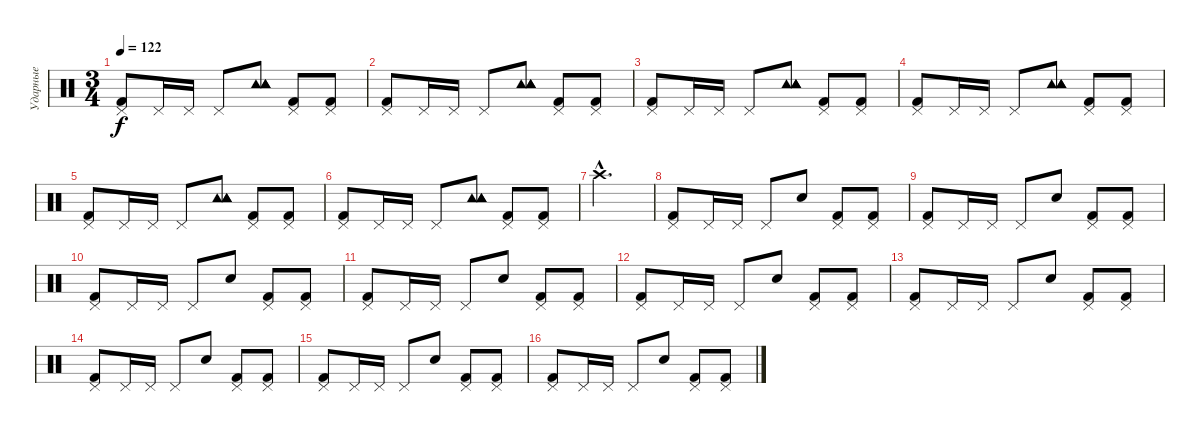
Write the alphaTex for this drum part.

\track ("Ударные" "Ударные") {instrument percussion}
\staff {score}
\articulation defaults
\ts (3 4)
\tempo 122
\clef neutral
\ks c
("Kick (hit) 2" "Pedal Hi-Hat (hit)").8{dy f} "Pedal Hi-Hat (hit)".16 "Pedal Hi-Hat (hit)".16 "Pedal Hi-Hat (hit)".8 ("Tambourine (hit)" "Tambourine (hit)" "Tambourine (hit)" "Tambourine (hit)").8 ("Kick (hit) 2" "Pedal Hi-Hat (hit)").8 ("Kick (hit) 2" "Pedal Hi-Hat (hit)").8 |
("Kick (hit) 2" "Pedal Hi-Hat (hit)").8 "Pedal Hi-Hat (hit)".16 "Pedal Hi-Hat (hit)".16 "Pedal Hi-Hat (hit)".8 ("Tambourine (hit)" "Tambourine (hit)" "Tambourine (hit)" "Tambourine (hit)").8 ("Kick (hit) 2" "Pedal Hi-Hat (hit)").8 ("Kick (hit) 2" "Pedal Hi-Hat (hit)").8 |
("Kick (hit) 2" "Pedal Hi-Hat (hit)").8 "Pedal Hi-Hat (hit)".16 "Pedal Hi-Hat (hit)".16 "Pedal Hi-Hat (hit)".8 ("Tambourine (hit)" "Tambourine (hit)" "Tambourine (hit)" "Tambourine (hit)").8 ("Kick (hit) 2" "Pedal Hi-Hat (hit)").8 ("Kick (hit) 2" "Pedal Hi-Hat (hit)").8 |
("Kick (hit) 2" "Pedal Hi-Hat (hit)").8 "Pedal Hi-Hat (hit)".16 "Pedal Hi-Hat (hit)".16 "Pedal Hi-Hat (hit)".8 ("Tambourine (hit)" "Tambourine (hit)" "Tambourine (hit)" "Tambourine (hit)").8 ("Kick (hit) 2" "Pedal Hi-Hat (hit)").8 ("Kick (hit) 2" "Pedal Hi-Hat (hit)").8 |
("Kick (hit) 2" "Pedal Hi-Hat (hit)").8 "Pedal Hi-Hat (hit)".16 "Pedal Hi-Hat (hit)".16 "Pedal Hi-Hat (hit)".8 ("Tambourine (hit)" "Tambourine (hit)" "Tambourine (hit)" "Tambourine (hit)").8 ("Kick (hit) 2" "Pedal Hi-Hat (hit)").8 ("Kick (hit) 2" "Pedal Hi-Hat (hit)").8 |
("Kick (hit) 2" "Pedal Hi-Hat (hit)").8 "Pedal Hi-Hat (hit)".16 "Pedal Hi-Hat (hit)".16 "Pedal Hi-Hat (hit)".8 ("Tambourine (hit)" "Tambourine (hit)" "Tambourine (hit)" "Tambourine (hit)").8 ("Kick (hit) 2" "Pedal Hi-Hat (hit)").8 ("Kick (hit) 2" "Pedal Hi-Hat (hit)").8 |
"Crash high (hit)"{hac}.2{d} |
("Kick (hit) 2" "Pedal Hi-Hat (hit)").8 "Pedal Hi-Hat (hit)".16 "Pedal Hi-Hat (hit)".16 "Pedal Hi-Hat (hit)".8 "Electric Snare (hit)".8 ("Kick (hit) 2" "Pedal Hi-Hat (hit)").8 ("Kick (hit) 2" "Pedal Hi-Hat (hit)").8 |
("Kick (hit) 2" "Pedal Hi-Hat (hit)").8 "Pedal Hi-Hat (hit)".16 "Pedal Hi-Hat (hit)".16 "Pedal Hi-Hat (hit)".8 "Electric Snare (hit)".8 ("Kick (hit) 2" "Pedal Hi-Hat (hit)").8 ("Kick (hit) 2" "Pedal Hi-Hat (hit)").8 |
("Kick (hit) 2" "Pedal Hi-Hat (hit)").8 "Pedal Hi-Hat (hit)".16 "Pedal Hi-Hat (hit)".16 "Pedal Hi-Hat (hit)".8 "Electric Snare (hit)".8 ("Kick (hit) 2" "Pedal Hi-Hat (hit)").8 ("Kick (hit) 2" "Pedal Hi-Hat (hit)").8 |
("Kick (hit) 2" "Pedal Hi-Hat (hit)").8 "Pedal Hi-Hat (hit)".16 "Pedal Hi-Hat (hit)".16 "Pedal Hi-Hat (hit)".8 "Electric Snare (hit)".8 ("Kick (hit) 2" "Pedal Hi-Hat (hit)").8 ("Kick (hit) 2" "Pedal Hi-Hat (hit)").8 |
("Kick (hit) 2" "Pedal Hi-Hat (hit)").8 "Pedal Hi-Hat (hit)".16 "Pedal Hi-Hat (hit)".16 "Pedal Hi-Hat (hit)".8 "Electric Snare (hit)".8 ("Kick (hit) 2" "Pedal Hi-Hat (hit)").8 ("Kick (hit) 2" "Pedal Hi-Hat (hit)").8 |
("Kick (hit) 2" "Pedal Hi-Hat (hit)").8 "Pedal Hi-Hat (hit)".16 "Pedal Hi-Hat (hit)".16 "Pedal Hi-Hat (hit)".8 "Electric Snare (hit)".8 ("Kick (hit) 2" "Pedal Hi-Hat (hit)").8 ("Kick (hit) 2" "Pedal Hi-Hat (hit)").8 |
("Kick (hit) 2" "Pedal Hi-Hat (hit)").8 "Pedal Hi-Hat (hit)".16 "Pedal Hi-Hat (hit)".16 "Pedal Hi-Hat (hit)".8 "Electric Snare (hit)".8 ("Kick (hit) 2" "Pedal Hi-Hat (hit)").8 ("Kick (hit) 2" "Pedal Hi-Hat (hit)").8 |
("Kick (hit) 2" "Pedal Hi-Hat (hit)").8 "Pedal Hi-Hat (hit)".16 "Pedal Hi-Hat (hit)".16 "Pedal Hi-Hat (hit)".8 "Electric Snare (hit)".8 ("Kick (hit) 2" "Pedal Hi-Hat (hit)").8 ("Kick (hit) 2" "Pedal Hi-Hat (hit)").8 |
("Kick (hit) 2" "Pedal Hi-Hat (hit)").8 "Pedal Hi-Hat (hit)".16 "Pedal Hi-Hat (hit)".16 "Pedal Hi-Hat (hit)".8 "Electric Snare (hit)".8 ("Kick (hit) 2" "Pedal Hi-Hat (hit)").8 ("Kick (hit) 2" "Pedal Hi-Hat (hit)").8
